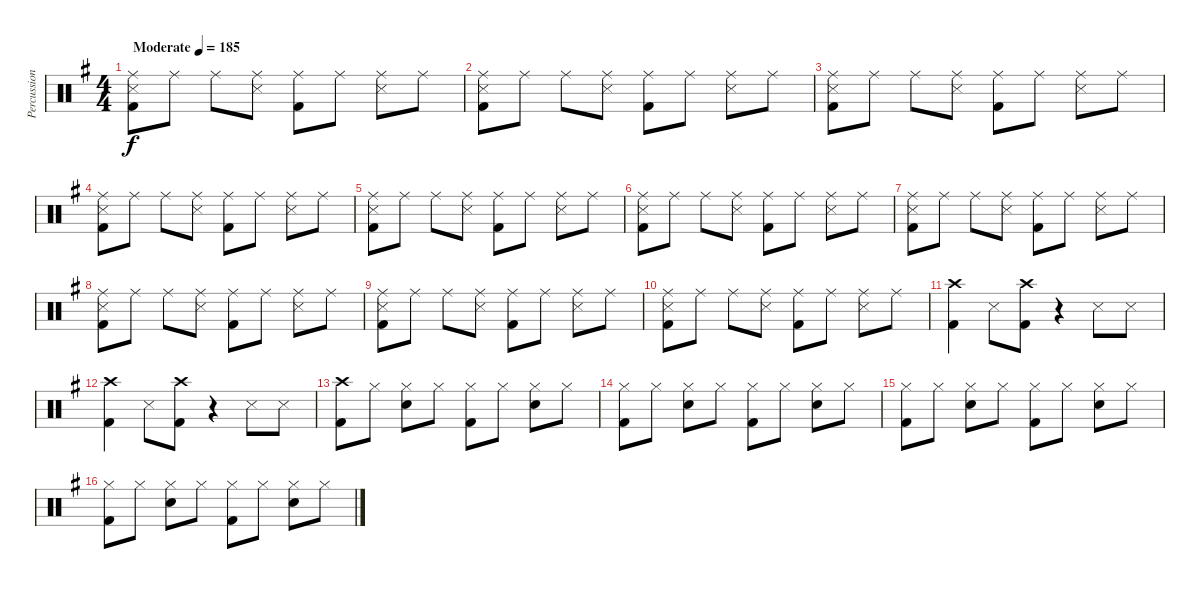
\track ("Percussion" "Percussion") {instrument percussion}
\staff {score}
\articulation defaults
\ts (4 4)
\tempo (185 "Moderate")
\clef neutral
\ks g
("Ride (middle)" "Snare (side stick) 3" "Kick (hit) 2").8{dy f} "Ride (middle)".8 "Ride (middle)".8 ("Ride (middle)" "Snare (side stick) 3").8 ("Ride (middle)" "Kick (hit) 2").8 "Ride (middle)".8 ("Ride (middle)" "Snare (side stick) 3").8 "Ride (middle)".8 |
("Ride (middle)" "Snare (side stick) 3" "Kick (hit) 2").8 "Ride (middle)".8 "Ride (middle)".8 ("Ride (middle)" "Snare (side stick) 3").8 ("Ride (middle)" "Kick (hit) 2").8 "Ride (middle)".8 ("Ride (middle)" "Snare (side stick) 3").8 "Ride (middle)".8 |
("Ride (middle)" "Snare (side stick) 3" "Kick (hit) 2").8 "Ride (middle)".8 "Ride (middle)".8 ("Ride (middle)" "Snare (side stick) 3").8 ("Ride (middle)" "Kick (hit) 2").8 "Ride (middle)".8 ("Ride (middle)" "Snare (side stick) 3").8 "Ride (middle)".8 |
("Ride (middle)" "Snare (side stick) 3" "Kick (hit) 2").8 "Ride (middle)".8 "Ride (middle)".8 ("Ride (middle)" "Snare (side stick) 3").8 ("Ride (middle)" "Kick (hit) 2").8 "Ride (middle)".8 ("Ride (middle)" "Snare (side stick) 3").8 "Ride (middle)".8 |
("Ride (middle)" "Snare (side stick) 3" "Kick (hit) 2").8 "Ride (middle)".8 "Ride (middle)".8 ("Ride (middle)" "Snare (side stick) 3").8 ("Ride (middle)" "Kick (hit) 2").8 "Ride (middle)".8 ("Ride (middle)" "Snare (side stick) 3").8 "Ride (middle)".8 |
("Ride (middle)" "Snare (side stick) 3" "Kick (hit) 2").8 "Ride (middle)".8 "Ride (middle)".8 ("Ride (middle)" "Snare (side stick) 3").8 ("Ride (middle)" "Kick (hit) 2").8 "Ride (middle)".8 ("Ride (middle)" "Snare (side stick) 3").8 "Ride (middle)".8 |
("Ride (middle)" "Snare (side stick) 3" "Kick (hit) 2").8 "Ride (middle)".8 "Ride (middle)".8 ("Ride (middle)" "Snare (side stick) 3").8 ("Ride (middle)" "Kick (hit) 2").8 "Ride (middle)".8 ("Ride (middle)" "Snare (side stick) 3").8 "Ride (middle)".8 |
("Ride (middle)" "Snare (side stick) 3" "Kick (hit) 2").8 "Ride (middle)".8 "Ride (middle)".8 ("Ride (middle)" "Snare (side stick) 3").8 ("Ride (middle)" "Kick (hit) 2").8 "Ride (middle)".8 ("Ride (middle)" "Snare (side stick) 3").8 "Ride (middle)".8 |
("Ride (middle)" "Snare (side stick) 3" "Kick (hit) 2").8 "Ride (middle)".8 "Ride (middle)".8 ("Ride (middle)" "Snare (side stick) 3").8 ("Ride (middle)" "Kick (hit) 2").8 "Ride (middle)".8 ("Ride (middle)" "Snare (side stick) 3").8 "Ride (middle)".8 |
("Ride (middle)" "Snare (side stick) 3" "Kick (hit) 2").8 "Ride (middle)".8 "Ride (middle)".8 ("Ride (middle)" "Snare (side stick) 3").8 ("Ride (middle)" "Kick (hit) 2").8 "Ride (middle)".8 ("Ride (middle)" "Snare (side stick) 3").8 "Ride (middle)".8 |
("Crash high (hit)" "Kick (hit) 2").4 "Snare (side stick) 3".8 ("Crash high (hit)" "Kick (hit) 2").8 r.4 "Snare (side stick) 3".8 "Snare (side stick) 3".8 |
("Crash high (hit)" "Kick (hit) 2").4 "Snare (side stick) 3".8 ("Crash high (hit)" "Kick (hit) 2").8 r.4 "Snare (side stick) 3".8 "Snare (side stick) 3".8 |
("Crash high (hit)" "Kick (hit) 2").8 "Hi-Hat (closed)".8 ("Hi-Hat (closed)" "Snare (hit) 2").8 "Hi-Hat (closed)".8 ("Hi-Hat (closed)" "Kick (hit) 2").8 "Hi-Hat (closed)".8 ("Hi-Hat (closed)" "Snare (hit) 2").8 "Hi-Hat (closed)".8 |
("Hi-Hat (closed)" "Kick (hit) 2").8 "Hi-Hat (closed)".8 ("Hi-Hat (closed)" "Snare (hit) 2").8 "Hi-Hat (closed)".8 ("Hi-Hat (closed)" "Kick (hit) 2").8 "Hi-Hat (closed)".8 ("Hi-Hat (closed)" "Snare (hit) 2").8 "Hi-Hat (closed)".8 |
("Hi-Hat (closed)" "Kick (hit) 2").8 "Hi-Hat (closed)".8 ("Hi-Hat (closed)" "Snare (hit) 2").8 "Hi-Hat (closed)".8 ("Hi-Hat (closed)" "Kick (hit) 2").8 "Hi-Hat (closed)".8 ("Hi-Hat (closed)" "Snare (hit) 2").8 "Hi-Hat (closed)".8 |
("Hi-Hat (closed)" "Kick (hit) 2").8 "Hi-Hat (closed)".8 ("Hi-Hat (closed)" "Snare (hit) 2").8 "Hi-Hat (closed)".8 ("Hi-Hat (closed)" "Kick (hit) 2").8 "Hi-Hat (closed)".8 ("Hi-Hat (closed)" "Snare (hit) 2").8 "Hi-Hat (closed)".8
